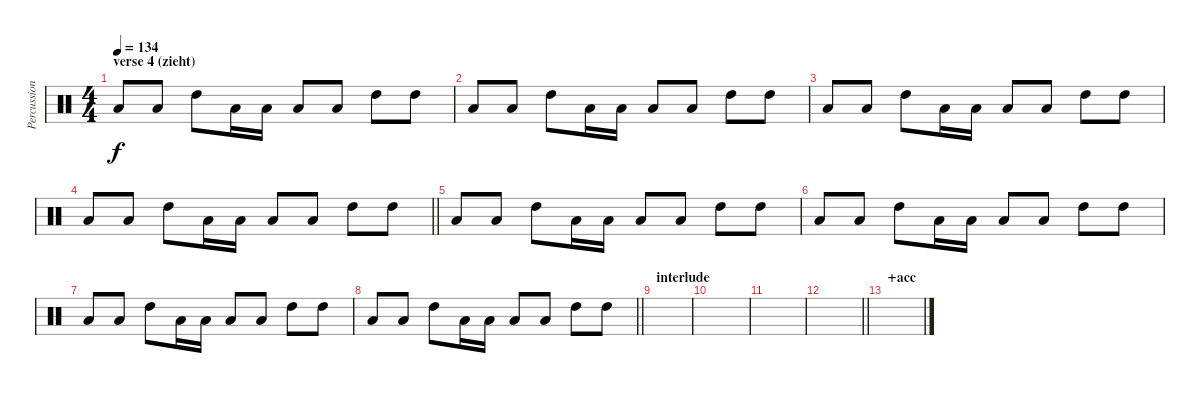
\track ("Percussion" "Percussion") {instrument percussion}
\staff {score}
\articulation defaults
\ts (4 4)
\section ("" "verse 4 (zieht)")
\tempo 134
\clef neutral
\ks c "Low Tom (hit)".8{dy f} "Low Tom (hit)".8 "High Tom (hit)".8 "Low Tom (hit)".16 "Low Tom (hit)".16 "Low Tom (hit)".8 "Low Tom (hit)".8 "High Tom (hit)".8 "High Tom (hit)".8
|
"Low Tom (hit)".8 "Low Tom (hit)".8 "High Tom (hit)".8 "Low Tom (hit)".16 "Low Tom (hit)".16 "Low Tom (hit)".8 "Low Tom (hit)".8 "High Tom (hit)".8 "High Tom (hit)".8 |
"Low Tom (hit)".8 "Low Tom (hit)".8 "High Tom (hit)".8 "Low Tom (hit)".16 "Low Tom (hit)".16 "Low Tom (hit)".8 "Low Tom (hit)".8 "High Tom (hit)".8 "High Tom (hit)".8 |
\barLineRight lightlight "Low Tom (hit)".8 "Low Tom (hit)".8 "High Tom (hit)".8 "Low Tom (hit)".16 "Low Tom (hit)".16 "Low Tom (hit)".8 "Low Tom (hit)".8 "High Tom (hit)".8 "High Tom (hit)".8
|
"Low Tom (hit)".8 "Low Tom (hit)".8 "High Tom (hit)".8 "Low Tom (hit)".16 "Low Tom (hit)".16 "Low Tom (hit)".8 "Low Tom (hit)".8 "High Tom (hit)".8 "High Tom (hit)".8 |
"Low Tom (hit)".8 "Low Tom (hit)".8 "High Tom (hit)".8 "Low Tom (hit)".16 "Low Tom (hit)".16 "Low Tom (hit)".8 "Low Tom (hit)".8 "High Tom (hit)".8 "High Tom (hit)".8 |
"Low Tom (hit)".8 "Low Tom (hit)".8 "High Tom (hit)".8 "Low Tom (hit)".16 "Low Tom (hit)".16 "Low Tom (hit)".8 "Low Tom (hit)".8 "High Tom (hit)".8 "High Tom (hit)".8 |
\barLineRight lightlight "Low Tom (hit)".8 "Low Tom (hit)".8 "High Tom (hit)".8 "Low Tom (hit)".16 "Low Tom (hit)".16 "Low Tom (hit)".8 "Low Tom (hit)".8 "High Tom (hit)".8 "High Tom (hit)".8
|
\section ("" "interlude")
|
|
|
\barLineRight lightlight
|
\section ("" "+acc")
